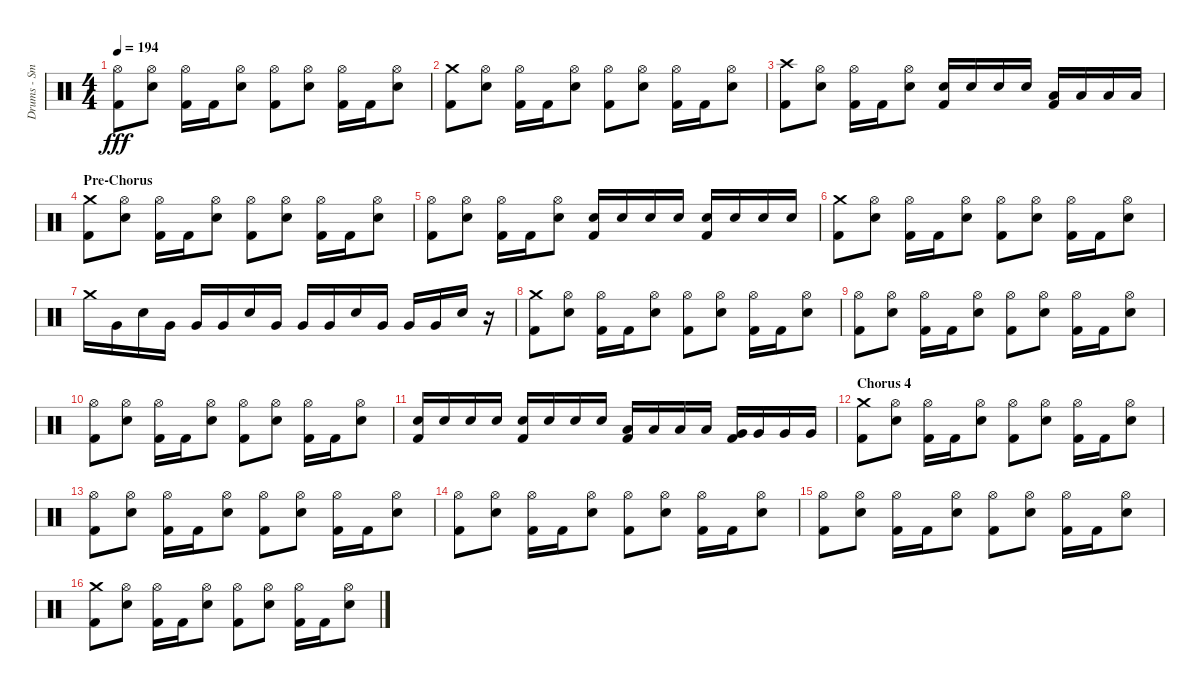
\track ("Drums - Smelly" "Drums - Sm") {instrument percussion}
\staff {score}
\articulation defaults
\ts (4 4)
\tempo 194
\clef neutral
\ks c
("Hi-Hat (open)" "Kick (hit) 2").8{dy fff} ("Hi-Hat (open)" "Electric Snare (hit)").8 ("Hi-Hat (open)" "Kick (hit) 2").16 "Kick (hit) 2".16 ("Hi-Hat (open)" "Electric Snare (hit)").8 ("Hi-Hat (open)" "Kick (hit) 2").8 ("Hi-Hat (open)" "Electric Snare (hit)").8 ("Hi-Hat (open)" "Kick (hit) 2").16 "Kick (hit) 2".16 ("Hi-Hat (open)" "Electric Snare (hit)").8 |
("Crash medium (hit)" "Kick (hit) 2").8 ("Hi-Hat (open)" "Electric Snare (hit)").8 ("Hi-Hat (open)" "Kick (hit) 2").16 "Kick (hit) 2".16 ("Hi-Hat (open)" "Electric Snare (hit)").8 ("Hi-Hat (open)" "Kick (hit) 2").8 ("Hi-Hat (open)" "Electric Snare (hit)").8 ("Hi-Hat (open)" "Kick (hit) 2").16 "Kick (hit) 2".16 ("Hi-Hat (open)" "Electric Snare (hit)").8 |
("Crash high (hit)" "Kick (hit) 2").8 ("Hi-Hat (open)" "Electric Snare (hit)").8 ("Hi-Hat (open)" "Kick (hit) 2").16 "Kick (hit) 2".16 ("Hi-Hat (open)" "Electric Snare (hit)").8 ("Electric Snare (hit)" "Kick (hit) 2").16 "Electric Snare (hit)".16 "Electric Snare (hit)".16 "Electric Snare (hit)".16 ("Kick (hit) 2" "Low Tom (hit)").16 "Low Tom (hit)".16 "Low Tom (hit)".16 "Low Tom (hit)".16 |
\section ("" "Pre-Chorus")
("Kick (hit) 2" "Crash medium (hit)").8 ("Electric Snare (hit)" "Hi-Hat (open)").8 ("Kick (hit) 2" "Hi-Hat (open)").16 "Kick (hit) 2".16 ("Electric Snare (hit)" "Hi-Hat (open)").8 ("Kick (hit) 2" "Hi-Hat (open)").8 ("Electric Snare (hit)" "Hi-Hat (open)").8 ("Kick (hit) 2" "Hi-Hat (open)").16 "Kick (hit) 2".16 ("Electric Snare (hit)" "Hi-Hat (open)").8 |
("Kick (hit) 2" "Hi-Hat (open)").8 ("Electric Snare (hit)" "Hi-Hat (open)").8 ("Kick (hit) 2" "Hi-Hat (open)").16 "Kick (hit) 2".16 ("Electric Snare (hit)" "Hi-Hat (open)").8 ("Electric Snare (hit)" "Kick (hit) 2").16 "Electric Snare (hit)".16 "Electric Snare (hit)".16 "Electric Snare (hit)".16 ("Electric Snare (hit)" "Kick (hit) 2").16 "Electric Snare (hit)".16 "Electric Snare (hit)".16 "Electric Snare (hit)".16 |
("Kick (hit) 2" "Crash medium (hit)").8 ("Electric Snare (hit)" "Hi-Hat (open)").8 ("Kick (hit) 2" "Hi-Hat (open)").16 "Kick (hit) 2".16 ("Electric Snare (hit)" "Hi-Hat (open)").8 ("Kick (hit) 2" "Hi-Hat (open)").8 ("Electric Snare (hit)" "Hi-Hat (open)").8 ("Kick (hit) 2" "Hi-Hat (open)").16 "Kick (hit) 2".16 ("Electric Snare (hit)" "Hi-Hat (open)").8 |
"Crash medium (hit)".16 "Very Low Tom (hit)".16 "Electric Snare (hit)".16 "Very Low Tom (hit)".16 "Very Low Tom (hit)".16 "Very Low Tom (hit)".16 "Electric Snare (hit)".16 "Very Low Tom (hit)".16 "Very Low Tom (hit)".16 "Very Low Tom (hit)".16 "Electric Snare (hit)".16 "Very Low Tom (hit)".16 "Very Low Tom (hit)".16 "Very Low Tom (hit)".16 "Electric Snare (hit)".16 r.16 |
("Kick (hit) 2" "Crash medium (hit)").8 ("Electric Snare (hit)" "Hi-Hat (open)").8 ("Kick (hit) 2" "Hi-Hat (open)").16 "Kick (hit) 2".16 ("Electric Snare (hit)" "Hi-Hat (open)").8 ("Kick (hit) 2" "Hi-Hat (open)").8 ("Electric Snare (hit)" "Hi-Hat (open)").8 ("Kick (hit) 2" "Hi-Hat (open)").16 "Kick (hit) 2".16 ("Electric Snare (hit)" "Hi-Hat (open)").8 |
("Kick (hit) 2" "Hi-Hat (open)").8 ("Electric Snare (hit)" "Hi-Hat (open)").8 ("Kick (hit) 2" "Hi-Hat (open)").16 "Kick (hit) 2".16 ("Electric Snare (hit)" "Hi-Hat (open)").8 ("Kick (hit) 2" "Hi-Hat (open)").8 ("Electric Snare (hit)" "Hi-Hat (open)").8 ("Kick (hit) 2" "Hi-Hat (open)").16 "Kick (hit) 2".16 ("Electric Snare (hit)" "Hi-Hat (open)").8 |
("Kick (hit) 2" "Hi-Hat (open)").8 ("Electric Snare (hit)" "Hi-Hat (open)").8 ("Kick (hit) 2" "Hi-Hat (open)").16 "Kick (hit) 2".16 ("Electric Snare (hit)" "Hi-Hat (open)").8 ("Kick (hit) 2" "Hi-Hat (open)").8 ("Electric Snare (hit)" "Hi-Hat (open)").8 ("Kick (hit) 2" "Hi-Hat (open)").16 "Kick (hit) 2".16 ("Electric Snare (hit)" "Hi-Hat (open)").8 |
("Electric Snare (hit)" "Kick (hit) 2").16 "Electric Snare (hit)".16 "Electric Snare (hit)".16 "Electric Snare (hit)".16 ("Electric Snare (hit)" "Kick (hit) 2").16 "Electric Snare (hit)".16 "Electric Snare (hit)".16 "Electric Snare (hit)".16 ("Low Tom (hit)" "Kick (hit) 2").16 "Low Tom (hit)".16 "Low Tom (hit)".16 "Low Tom (hit)".16 ("Very Low Tom (hit)" "Kick (hit) 2").16 "Very Low Tom (hit)".16 "Very Low Tom (hit)".16 "Very Low Tom (hit)".16 |
\section ("" "Chorus 4")
("Kick (hit) 2" "Crash medium (hit)").8 ("Electric Snare (hit)" "Hi-Hat (open)").8 ("Kick (hit) 2" "Hi-Hat (open)").16 "Kick (hit) 2".16 ("Electric Snare (hit)" "Hi-Hat (open)").8 ("Kick (hit) 2" "Hi-Hat (open)").8 ("Electric Snare (hit)" "Hi-Hat (open)").8 ("Kick (hit) 2" "Hi-Hat (open)").16 "Kick (hit) 2".16 ("Electric Snare (hit)" "Hi-Hat (open)").8 |
("Kick (hit) 2" "Hi-Hat (open)").8 ("Electric Snare (hit)" "Hi-Hat (open)").8 ("Kick (hit) 2" "Hi-Hat (open)").16 "Kick (hit) 2".16 ("Electric Snare (hit)" "Hi-Hat (open)").8 ("Kick (hit) 2" "Hi-Hat (open)").8 ("Electric Snare (hit)" "Hi-Hat (open)").8 ("Kick (hit) 2" "Hi-Hat (open)").16 "Kick (hit) 2".16 ("Electric Snare (hit)" "Hi-Hat (open)").8 |
("Kick (hit) 2" "Hi-Hat (open)").8 ("Electric Snare (hit)" "Hi-Hat (open)").8 ("Kick (hit) 2" "Hi-Hat (open)").16 "Kick (hit) 2".16 ("Electric Snare (hit)" "Hi-Hat (open)").8 ("Kick (hit) 2" "Hi-Hat (open)").8 ("Electric Snare (hit)" "Hi-Hat (open)").8 ("Kick (hit) 2" "Hi-Hat (open)").16 "Kick (hit) 2".16 ("Electric Snare (hit)" "Hi-Hat (open)").8 |
("Kick (hit) 2" "Hi-Hat (open)").8 ("Electric Snare (hit)" "Hi-Hat (open)").8 ("Kick (hit) 2" "Hi-Hat (open)").16 "Kick (hit) 2".16 ("Electric Snare (hit)" "Hi-Hat (open)").8 ("Kick (hit) 2" "Hi-Hat (open)").8 ("Electric Snare (hit)" "Hi-Hat (open)").8 ("Kick (hit) 2" "Hi-Hat (open)").16 "Kick (hit) 2".16 ("Electric Snare (hit)" "Hi-Hat (open)").8 |
("Kick (hit) 2" "Crash medium (hit)").8 ("Electric Snare (hit)" "Hi-Hat (open)").8 ("Kick (hit) 2" "Hi-Hat (open)").16 "Kick (hit) 2".16 ("Electric Snare (hit)" "Hi-Hat (open)").8 ("Kick (hit) 2" "Hi-Hat (open)").8 ("Electric Snare (hit)" "Hi-Hat (open)").8 ("Kick (hit) 2" "Hi-Hat (open)").16 "Kick (hit) 2".16 ("Electric Snare (hit)" "Hi-Hat (open)").8
